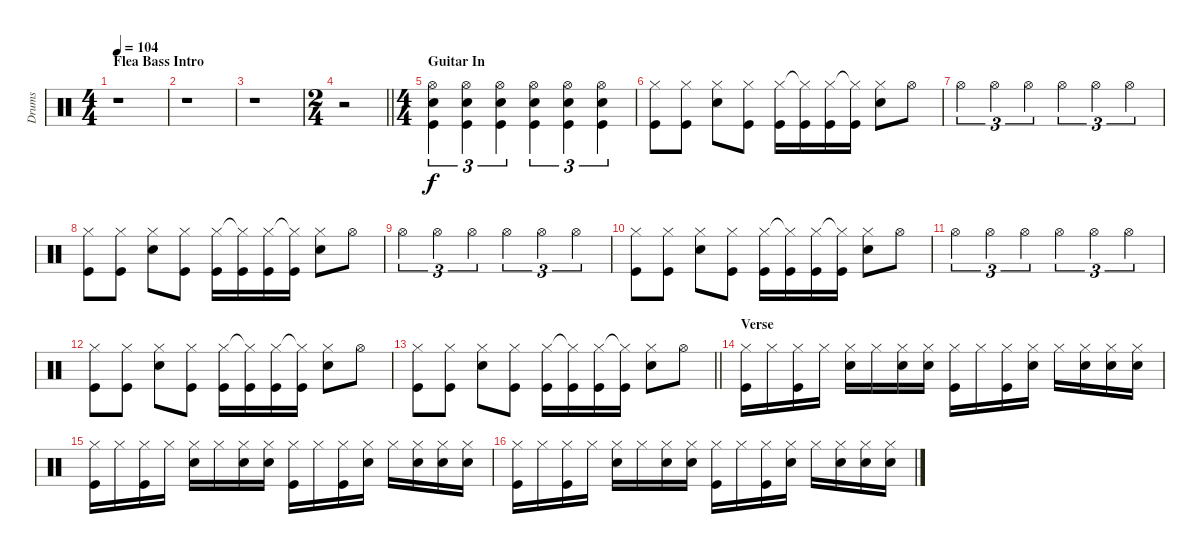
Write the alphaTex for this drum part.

\track ("Drums" "Drums") {instrument percussion}
\staff {score}
\articulation defaults
\ts (4 4)
\section ("" "Flea Bass Intro")
\tempo 104
\clef neutral
\ks c
r.1{dy f} |
r.1 |
r.1 |
\ts (2 4)
\barLineRight lightlight
r.2 |
\ts (4 4)
\section ("" "Guitar In")
("Hi-Hat (open)" "Electric Snare (hit)" "Kick (hit)").4{tu (3 2)} ("Hi-Hat (open)" "Electric Snare (hit)" "Kick (hit)").4{tu (3 2)} ("Hi-Hat (open)" "Electric Snare (hit)" "Kick (hit)").4{tu (3 2)} ("Hi-Hat (open)" "Electric Snare (hit)" "Kick (hit)").4{tu (3 2)} ("Hi-Hat (open)" "Electric Snare (hit)" "Kick (hit)").4{tu (3 2)} ("Hi-Hat (open)" "Electric Snare (hit)" "Kick (hit)").4{tu (3 2)} |
("Hi-Hat (closed)" "Kick (hit)").8 ("Hi-Hat (closed)" "Kick (hit)").8 ("Hi-Hat (closed)" "Electric Snare (hit)").8 ("Hi-Hat (closed)" "Kick (hit)").8 ("Hi-Hat (closed)" "Kick (hit)").16 ("Hi-Hat (closed)"{t} "Kick (hit)").16 ("Hi-Hat (closed)" "Kick (hit)").16 ("Hi-Hat (closed)"{t} "Kick (hit)").16 ("Hi-Hat (closed)" "Electric Snare (hit)").8 "Hi-Hat (open)".8 |
"Hi-Hat (open)".4{tu (3 2)} "Hi-Hat (open)".4{tu (3 2)} "Hi-Hat (open)".4{tu (3 2)} "Hi-Hat (open)".4{tu (3 2)} "Hi-Hat (open)".4{tu (3 2)} "Hi-Hat (open)".4{tu (3 2)} |
("Hi-Hat (closed)" "Kick (hit)").8 ("Hi-Hat (closed)" "Kick (hit)").8 ("Hi-Hat (closed)" "Electric Snare (hit)").8 ("Hi-Hat (closed)" "Kick (hit)").8 ("Hi-Hat (closed)" "Kick (hit)").16 ("Hi-Hat (closed)"{t} "Kick (hit)").16 ("Hi-Hat (closed)" "Kick (hit)").16 ("Hi-Hat (closed)"{t} "Kick (hit)").16 ("Hi-Hat (closed)" "Electric Snare (hit)").8 "Hi-Hat (open)".8 |
"Hi-Hat (open)".4{tu (3 2)} "Hi-Hat (open)".4{tu (3 2)} "Hi-Hat (open)".4{tu (3 2)} "Hi-Hat (open)".4{tu (3 2)} "Hi-Hat (open)".4{tu (3 2)} "Hi-Hat (open)".4{tu (3 2)} |
("Hi-Hat (closed)" "Kick (hit)").8 ("Hi-Hat (closed)" "Kick (hit)").8 ("Hi-Hat (closed)" "Electric Snare (hit)").8 ("Hi-Hat (closed)" "Kick (hit)").8 ("Hi-Hat (closed)" "Kick (hit)").16 ("Hi-Hat (closed)"{t} "Kick (hit)").16 ("Hi-Hat (closed)" "Kick (hit)").16 ("Hi-Hat (closed)"{t} "Kick (hit)").16 ("Hi-Hat (closed)" "Electric Snare (hit)").8 "Hi-Hat (open)".8 |
"Hi-Hat (open)".4{tu (3 2)} "Hi-Hat (open)".4{tu (3 2)} "Hi-Hat (open)".4{tu (3 2)} "Hi-Hat (open)".4{tu (3 2)} "Hi-Hat (open)".4{tu (3 2)} "Hi-Hat (open)".4{tu (3 2)} |
("Hi-Hat (closed)" "Kick (hit)").8 ("Hi-Hat (closed)" "Kick (hit)").8 ("Hi-Hat (closed)" "Electric Snare (hit)").8 ("Hi-Hat (closed)" "Kick (hit)").8 ("Hi-Hat (closed)" "Kick (hit)").16 ("Hi-Hat (closed)"{t} "Kick (hit)").16 ("Hi-Hat (closed)" "Kick (hit)").16 ("Hi-Hat (closed)"{t} "Kick (hit)").16 ("Hi-Hat (closed)" "Electric Snare (hit)").8 "Hi-Hat (open)".8 |
\barLineRight lightlight
("Hi-Hat (closed)" "Kick (hit)").8 ("Hi-Hat (closed)" "Kick (hit)").8 ("Hi-Hat (closed)" "Electric Snare (hit)").8 ("Hi-Hat (closed)" "Kick (hit)").8 ("Hi-Hat (closed)" "Kick (hit)").16 ("Hi-Hat (closed)"{t} "Kick (hit)").16 ("Hi-Hat (closed)" "Kick (hit)").16 ("Hi-Hat (closed)"{t} "Kick (hit)").16 ("Hi-Hat (closed)" "Electric Snare (hit)").8 "Hi-Hat (open)".8 |
\section ("" "Verse")
("Hi-Hat (closed)" "Kick (hit)").16 "Hi-Hat (closed)".16 ("Hi-Hat (closed)" "Kick (hit)").16 "Hi-Hat (closed)".16 ("Hi-Hat (closed)" "Electric Snare (hit)").16 "Hi-Hat (closed)".16 ("Hi-Hat (closed)" "Electric Snare (hit)").16 ("Hi-Hat (closed)" "Electric Snare (hit)").16 ("Hi-Hat (closed)" "Kick (hit)").16 "Hi-Hat (closed)".16 ("Hi-Hat (closed)" "Kick (hit)").16 ("Hi-Hat (closed)" "Electric Snare (hit)").16 "Hi-Hat (closed)".16 ("Hi-Hat (closed)" "Electric Snare (hit)").16 ("Hi-Hat (closed)" "Electric Snare (hit)").16 ("Hi-Hat (closed)" "Electric Snare (hit)").16 |
("Hi-Hat (closed)" "Kick (hit)").16 "Hi-Hat (closed)".16 ("Hi-Hat (closed)" "Kick (hit)").16 "Hi-Hat (closed)".16 ("Hi-Hat (closed)" "Electric Snare (hit)").16 "Hi-Hat (closed)".16 ("Hi-Hat (closed)" "Electric Snare (hit)").16 ("Hi-Hat (closed)" "Electric Snare (hit)").16 ("Hi-Hat (closed)" "Kick (hit)").16 "Hi-Hat (closed)".16 ("Hi-Hat (closed)" "Kick (hit)").16 ("Hi-Hat (closed)" "Electric Snare (hit)").16 "Hi-Hat (closed)".16 ("Hi-Hat (closed)" "Electric Snare (hit)").16 ("Hi-Hat (closed)" "Electric Snare (hit)").16 ("Hi-Hat (closed)" "Electric Snare (hit)").16 |
("Hi-Hat (closed)" "Kick (hit)").16 "Hi-Hat (closed)".16 ("Hi-Hat (closed)" "Kick (hit)").16 "Hi-Hat (closed)".16 ("Hi-Hat (closed)" "Electric Snare (hit)").16 "Hi-Hat (closed)".16 ("Hi-Hat (closed)" "Electric Snare (hit)").16 ("Hi-Hat (closed)" "Electric Snare (hit)").16 ("Hi-Hat (closed)" "Kick (hit)").16 "Hi-Hat (closed)".16 ("Hi-Hat (closed)" "Kick (hit)").16 ("Hi-Hat (closed)" "Electric Snare (hit)").16 "Hi-Hat (closed)".16 ("Hi-Hat (closed)" "Electric Snare (hit)").16 ("Hi-Hat (closed)" "Electric Snare (hit)").16 ("Hi-Hat (closed)" "Electric Snare (hit)").16
